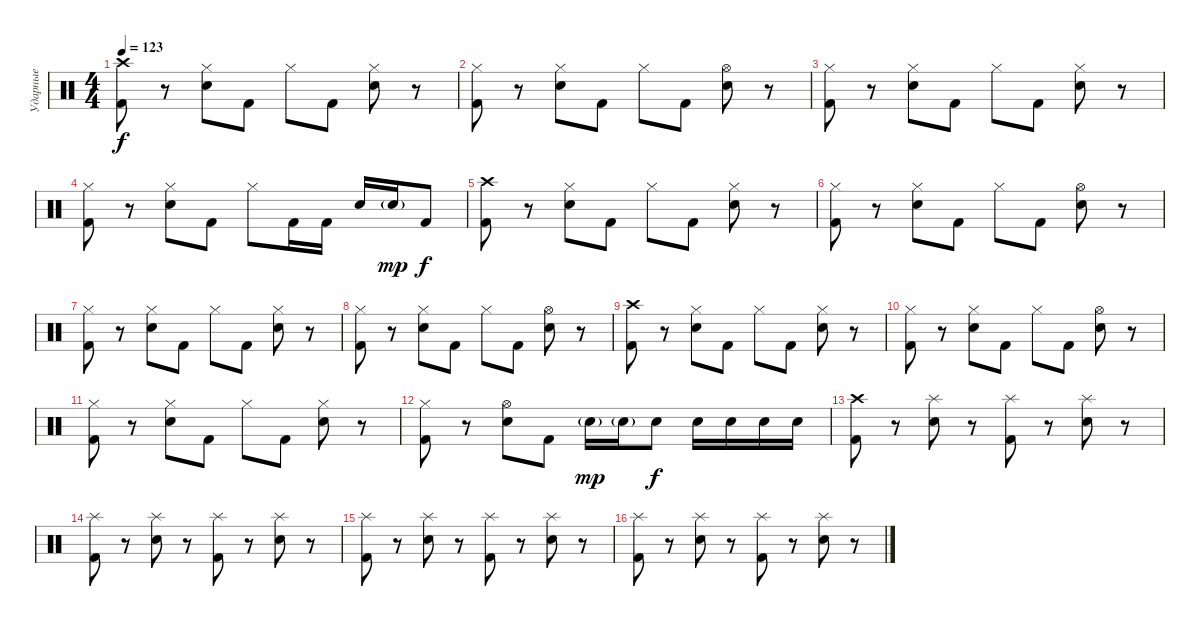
\track ("Ударные" "Ударные") {instrument percussion}
\staff {score}
\articulation defaults
\ts (4 4)
\tempo 123
\clef neutral
\ks c
("Crash high (hit)" "Kick (hit) 2").8{dy f} r.8 ("Hi-Hat (closed)" "Electric Snare (hit)").8 "Kick (hit) 2".8 "Hi-Hat (closed)".8 "Kick (hit) 2".8 ("Hi-Hat (closed)" "Electric Snare (hit)").8 r.8 |
("Hi-Hat (closed)" "Kick (hit) 2").8 r.8 ("Hi-Hat (closed)" "Electric Snare (hit)").8 "Kick (hit) 2".8 "Hi-Hat (closed)".8 "Kick (hit) 2".8 ("Hi-Hat (open)" "Electric Snare (hit)").8 r.8 |
("Hi-Hat (closed)" "Kick (hit) 2").8 r.8 ("Hi-Hat (closed)" "Electric Snare (hit)").8 "Kick (hit) 2".8 "Hi-Hat (closed)".8 "Kick (hit) 2".8 ("Hi-Hat (closed)" "Electric Snare (hit)").8 r.8 |
("Hi-Hat (closed)" "Kick (hit) 2").8 r.8 ("Hi-Hat (closed)" "Electric Snare (hit)").8 "Kick (hit) 2".8 "Hi-Hat (closed)".8 "Kick (hit) 2".16 "Kick (hit) 2".16 "Electric Snare (hit)".16 "Electric Snare (hit)"{g}.16{dy mp} "Kick (hit) 2".8{dy f} |
("Crash high (hit)" "Kick (hit) 2").8 r.8 ("Hi-Hat (closed)" "Electric Snare (hit)").8 "Kick (hit) 2".8 "Hi-Hat (closed)".8 "Kick (hit) 2".8 ("Hi-Hat (closed)" "Electric Snare (hit)").8 r.8 |
("Hi-Hat (closed)" "Kick (hit) 2").8 r.8 ("Hi-Hat (closed)" "Electric Snare (hit)").8 "Kick (hit) 2".8 "Hi-Hat (closed)".8 "Kick (hit) 2".8 ("Hi-Hat (open)" "Electric Snare (hit)").8 r.8 |
("Hi-Hat (closed)" "Kick (hit) 2").8 r.8 ("Hi-Hat (closed)" "Electric Snare (hit)").8 "Kick (hit) 2".8 "Hi-Hat (closed)".8 "Kick (hit) 2".8 ("Hi-Hat (closed)" "Electric Snare (hit)").8 r.8 |
("Hi-Hat (closed)" "Kick (hit) 2").8 r.8 ("Hi-Hat (closed)" "Electric Snare (hit)").8 "Kick (hit) 2".8 "Hi-Hat (closed)".8 "Kick (hit) 2".8 ("Hi-Hat (open)" "Electric Snare (hit)").8 r.8 |
("Crash high (hit)" "Kick (hit) 2").8 r.8 ("Hi-Hat (closed)" "Electric Snare (hit)").8 "Kick (hit) 2".8 "Hi-Hat (closed)".8 "Kick (hit) 2".8 ("Hi-Hat (closed)" "Electric Snare (hit)").8 r.8 |
("Hi-Hat (closed)" "Kick (hit) 2").8 r.8 ("Hi-Hat (closed)" "Electric Snare (hit)").8 "Kick (hit) 2".8 "Hi-Hat (closed)".8 "Kick (hit) 2".8 ("Hi-Hat (open)" "Electric Snare (hit)").8 r.8 |
("Hi-Hat (closed)" "Kick (hit) 2").8 r.8 ("Hi-Hat (closed)" "Electric Snare (hit)").8 "Kick (hit) 2".8 "Hi-Hat (closed)".8 "Kick (hit) 2".8 ("Hi-Hat (closed)" "Electric Snare (hit)").8 r.8 |
("Hi-Hat (closed)" "Kick (hit) 2").8 r.8 ("Hi-Hat (open)" "Electric Snare (hit)").8 "Kick (hit) 2".8 "Electric Snare (hit)"{g}.16{dy mp} "Electric Snare (hit)"{g}.16 "Electric Snare (hit)".8{dy f} "Electric Snare (hit)".16 "Electric Snare (hit)".16 "Electric Snare (hit)".16 "Electric Snare (hit)".16 |
("Crash high (hit)" "Kick (hit) 2").8 r.8 ("Splash (hit)" "Electric Snare (hit)").8 r.8 ("Splash (hit)" "Kick (hit) 2").8 r.8 ("Splash (hit)" "Electric Snare (hit)").8 r.8 |
("Splash (hit)" "Kick (hit) 2").8 r.8 ("Splash (hit)" "Electric Snare (hit)").8 r.8 ("Splash (hit)" "Kick (hit) 2").8 r.8 ("Splash (hit)" "Electric Snare (hit)").8 r.8 |
("Splash (hit)" "Kick (hit) 2").8 r.8 ("Splash (hit)" "Electric Snare (hit)").8 r.8 ("Splash (hit)" "Kick (hit) 2").8 r.8 ("Splash (hit)" "Electric Snare (hit)").8 r.8 |
("Splash (hit)" "Kick (hit) 2").8 r.8 ("Splash (hit)" "Electric Snare (hit)").8 r.8 ("Splash (hit)" "Kick (hit) 2").8 r.8 ("Splash (hit)" "Electric Snare (hit)").8 r.8
